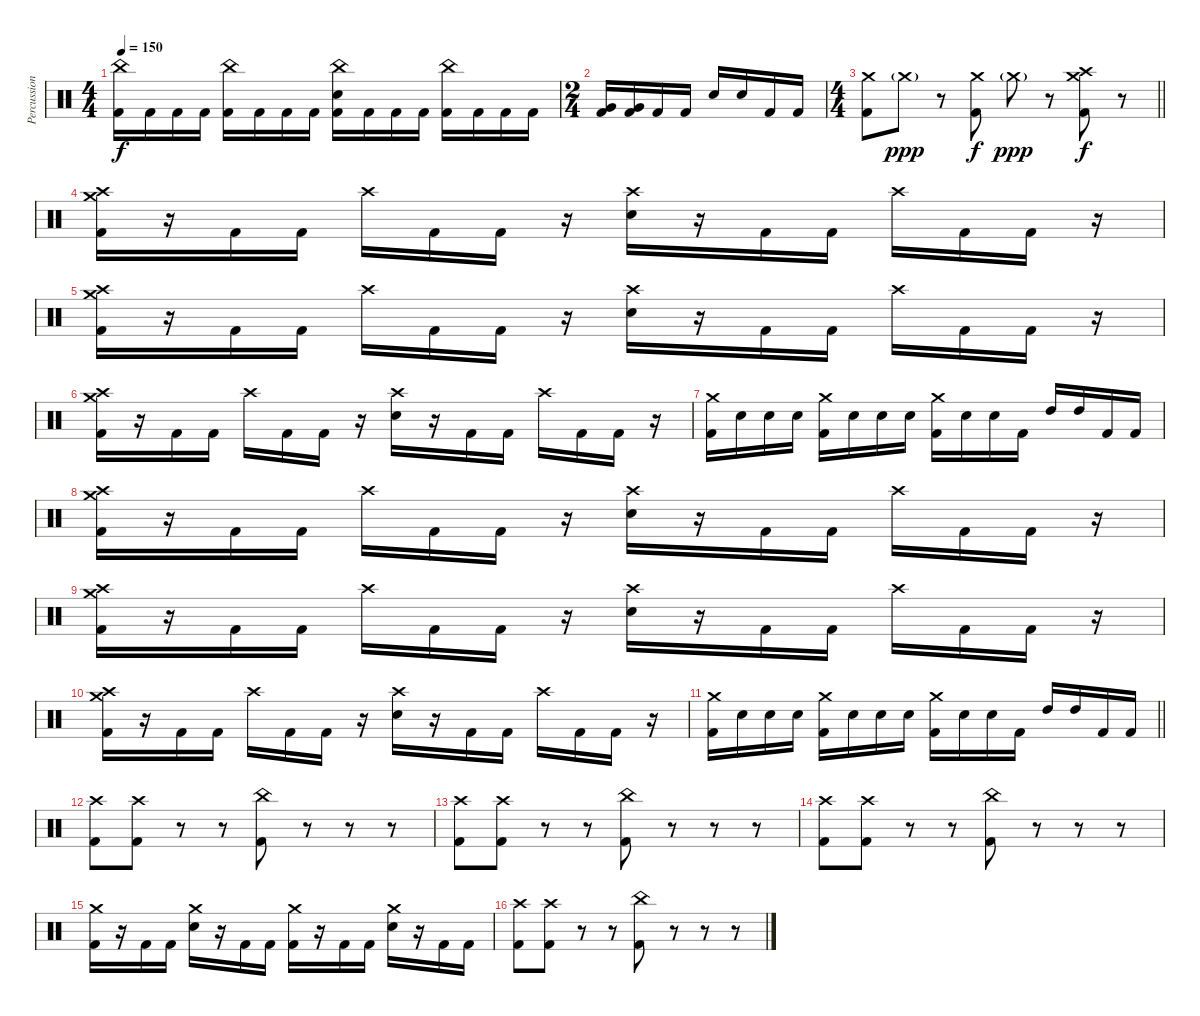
\track ("Percussion" "Percussion") {instrument percussion}
\staff {score}
\articulation defaults
\ts (4 4)
\tempo 150
\clef neutral
\ks c
("China (hit)" "Kick (hit) 2").16{dy f} "Kick (hit) 2".16 "Kick (hit) 2".16 "Kick (hit) 2".16 ("China (hit)" "Kick (hit) 2").16 "Kick (hit) 2".16 "Kick (hit) 2".16 "Kick (hit) 2".16 ("China (hit)" "Snare (hit) 2" "Kick (hit) 2").16 "Kick (hit) 2".16 "Kick (hit) 2".16 "Kick (hit) 2".16 ("China (hit)" "Kick (hit) 2").16 "Kick (hit) 2".16 "Kick (hit) 2".16 "Kick (hit) 2".16 |
\ts (2 4)
("Very Low Tom (hit)" "Kick (hit) 2").16 ("Very Low Tom (hit)" "Kick (hit) 2").16 "Kick (hit) 2".16 "Kick (hit) 2".16 "Snare (hit) 2".16 "Snare (hit) 2".16 "Kick (hit) 2".16 "Kick (hit) 2".16 |
\ts (4 4)
\barLineRight lightlight
("Crash medium (hit)" "Kick (hit) 2").8 "Crash medium (hit)"{g}.8{dy ppp} r.8 ("Crash medium (hit)" "Kick (hit) 2").8{dy f} "Crash medium (hit)"{g}.8{dy ppp} r.8 ("Crash medium (hit)" "Crash high (hit)" "Kick (hit) 2").8{dy f} r.8 |
\section ("" "")
("Crash high (hit)" "Crash medium (hit)" "Kick (hit) 2").16 r.16 "Kick (hit) 2".16 "Kick (hit) 2".16 "Crash high (hit)".16 "Kick (hit) 2".16 "Kick (hit) 2".16 r.16 ("Crash high (hit)" "Snare (hit) 2").16 r.16 "Kick (hit) 2".16 "Kick (hit) 2".16 "Crash high (hit)".16 "Kick (hit) 2".16 "Kick (hit) 2".16 r.16 |
("Crash high (hit)" "Crash medium (hit)" "Kick (hit) 2").16 r.16 "Kick (hit) 2".16 "Kick (hit) 2".16 "Crash high (hit)".16 "Kick (hit) 2".16 "Kick (hit) 2".16 r.16 ("Crash high (hit)" "Snare (hit) 2").16 r.16 "Kick (hit) 2".16 "Kick (hit) 2".16 "Crash high (hit)".16 "Kick (hit) 2".16 "Kick (hit) 2".16 r.16 |
("Crash high (hit)" "Crash medium (hit)" "Kick (hit) 2").16 r.16 "Kick (hit) 2".16 "Kick (hit) 2".16 "Crash high (hit)".16 "Kick (hit) 2".16 "Kick (hit) 2".16 r.16 ("Crash high (hit)" "Snare (hit) 2").16 r.16 "Kick (hit) 2".16 "Kick (hit) 2".16 "Crash high (hit)".16 "Kick (hit) 2".16 "Kick (hit) 2".16 r.16 |
("Crash medium (hit)" "Kick (hit) 2").16 "Snare (hit) 2".16 "Snare (hit) 2".16 "Snare (hit) 2".16 ("Crash medium (hit)" "Kick (hit) 2").16 "Snare (hit) 2".16 "Snare (hit) 2".16 "Snare (hit) 2".16 ("Crash medium (hit)" "Kick (hit) 2").16 "Snare (hit) 2".16 "Snare (hit) 2".16 "Kick (hit) 2".16 "High Tom (hit)".16 "High Tom (hit)".16 "Kick (hit) 2".16 "Kick (hit) 2".16 |
("Crash high (hit)" "Crash medium (hit)" "Kick (hit) 2").16 r.16 "Kick (hit) 2".16 "Kick (hit) 2".16 "Crash high (hit)".16 "Kick (hit) 2".16 "Kick (hit) 2".16 r.16 ("Crash high (hit)" "Snare (hit) 2").16 r.16 "Kick (hit) 2".16 "Kick (hit) 2".16 "Crash high (hit)".16 "Kick (hit) 2".16 "Kick (hit) 2".16 r.16 |
("Crash high (hit)" "Crash medium (hit)" "Kick (hit) 2").16 r.16 "Kick (hit) 2".16 "Kick (hit) 2".16 "Crash high (hit)".16 "Kick (hit) 2".16 "Kick (hit) 2".16 r.16 ("Crash high (hit)" "Snare (hit) 2").16 r.16 "Kick (hit) 2".16 "Kick (hit) 2".16 "Crash high (hit)".16 "Kick (hit) 2".16 "Kick (hit) 2".16 r.16 |
("Crash high (hit)" "Crash medium (hit)" "Kick (hit) 2").16 r.16 "Kick (hit) 2".16 "Kick (hit) 2".16 "Crash high (hit)".16 "Kick (hit) 2".16 "Kick (hit) 2".16 r.16 ("Crash high (hit)" "Snare (hit) 2").16 r.16 "Kick (hit) 2".16 "Kick (hit) 2".16 "Crash high (hit)".16 "Kick (hit) 2".16 "Kick (hit) 2".16 r.16 |
\barLineRight lightlight
("Crash medium (hit)" "Kick (hit) 2").16 "Snare (hit) 2".16 "Snare (hit) 2".16 "Snare (hit) 2".16 ("Crash medium (hit)" "Kick (hit) 2").16 "Snare (hit) 2".16 "Snare (hit) 2".16 "Snare (hit) 2".16 ("Crash medium (hit)" "Kick (hit) 2").16 "Snare (hit) 2".16 "Snare (hit) 2".16 "Kick (hit) 2".16 "High Tom (hit)".16 "High Tom (hit)".16 "Kick (hit) 2".16 "Kick (hit) 2".16 |
\section ("" "")
("Crash high (hit)" "Kick (hit) 2").8 ("Crash high (hit)" "Kick (hit) 2").8 r.8 r.8 ("China (hit)" "Kick (hit) 2").8 r.8 r.8 r.8 |
("Crash high (hit)" "Kick (hit) 2").8 ("Crash high (hit)" "Kick (hit) 2").8 r.8 r.8 ("China (hit)" "Kick (hit) 2").8 r.8 r.8 r.8 |
("Crash high (hit)" "Kick (hit) 2").8 ("Crash high (hit)" "Kick (hit) 2").8 r.8 r.8 ("China (hit)" "Kick (hit) 2").8 r.8 r.8 r.8 |
("Crash medium (hit)" "Kick (hit) 2").16 r.16 "Kick (hit) 2".16 "Kick (hit) 2".16 ("Crash medium (hit)" "Snare (hit) 2").16 r.16 "Kick (hit) 2".16 "Kick (hit) 2".16 ("Crash medium (hit)" "Kick (hit) 2").16 r.16 "Kick (hit) 2".16 "Kick (hit) 2".16 ("Crash medium (hit)" "Snare (hit) 2").16 r.16 "Kick (hit) 2".16 "Kick (hit) 2".16 |
("Crash high (hit)" "Kick (hit) 2").8 ("Crash high (hit)" "Kick (hit) 2").8 r.8 r.8 ("China (hit)" "Kick (hit) 2").8 r.8 r.8 r.8
